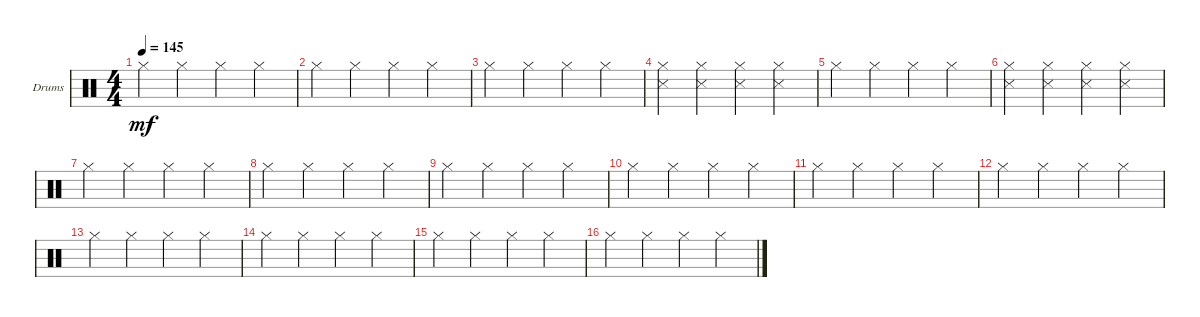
\defaultSystemsLayout 4
\bracketExtendMode groupsimilarinstruments
\firstSystemTrackNameOrientation horizontal
\otherSystemsTrackNameOrientation horizontal
\track ("Helders" "Drums") {instrument percussion}
\staff {score}
\articulation defaults
\ts (4 4)
\tempo 145
\clef neutral
\ks c "Hi-Hat (closed)".4{dy mf} "Hi-Hat (closed)".4 "Hi-Hat (closed)".4 "Hi-Hat (closed)".4
|
"Hi-Hat (closed)".4 "Hi-Hat (closed)".4 "Hi-Hat (closed)".4 "Hi-Hat (closed)".4 |
"Hi-Hat (closed)".4 "Hi-Hat (closed)".4 "Hi-Hat (closed)".4 "Hi-Hat (closed)".4 |
("Hi-Hat (closed)" "Snare (side stick) 3").4 ("Hi-Hat (closed)" "Snare (side stick) 3").4 ("Hi-Hat (closed)" "Snare (side stick) 3").4 ("Hi-Hat (closed)" "Snare (side stick) 3").4 |
"Hi-Hat (closed)".4 "Hi-Hat (closed)".4 "Hi-Hat (closed)".4 "Hi-Hat (closed)".4 |
("Hi-Hat (closed)" "Snare (side stick) 3").4 ("Hi-Hat (closed)" "Snare (side stick) 3").4 ("Hi-Hat (closed)" "Snare (side stick) 3").4 ("Hi-Hat (closed)" "Snare (side stick) 3").4 |
"Hi-Hat (closed)".4 "Hi-Hat (closed)".4 "Hi-Hat (closed)".4 "Hi-Hat (closed)".4 |
"Hi-Hat (closed)".4 "Hi-Hat (closed)".4 "Hi-Hat (closed)".4 "Hi-Hat (closed)".4 |
"Hi-Hat (closed)".4 "Hi-Hat (closed)".4 "Hi-Hat (closed)".4 "Hi-Hat (closed)".4 |
"Hi-Hat (closed)".4 "Hi-Hat (closed)".4 "Hi-Hat (closed)".4 "Hi-Hat (closed)".4 |
"Hi-Hat (closed)".4 "Hi-Hat (closed)".4 "Hi-Hat (closed)".4 "Hi-Hat (closed)".4 |
"Hi-Hat (closed)".4 "Hi-Hat (closed)".4 "Hi-Hat (closed)".4 "Hi-Hat (closed)".4 |
"Hi-Hat (closed)".4 "Hi-Hat (closed)".4 "Hi-Hat (closed)".4 "Hi-Hat (closed)".4 |
"Hi-Hat (closed)".4 "Hi-Hat (closed)".4 "Hi-Hat (closed)".4 "Hi-Hat (closed)".4 |
"Hi-Hat (closed)".4 "Hi-Hat (closed)".4 "Hi-Hat (closed)".4 "Hi-Hat (closed)".4 |
"Hi-Hat (closed)".4 "Hi-Hat (closed)".4 "Hi-Hat (closed)".4 "Hi-Hat (closed)".4
